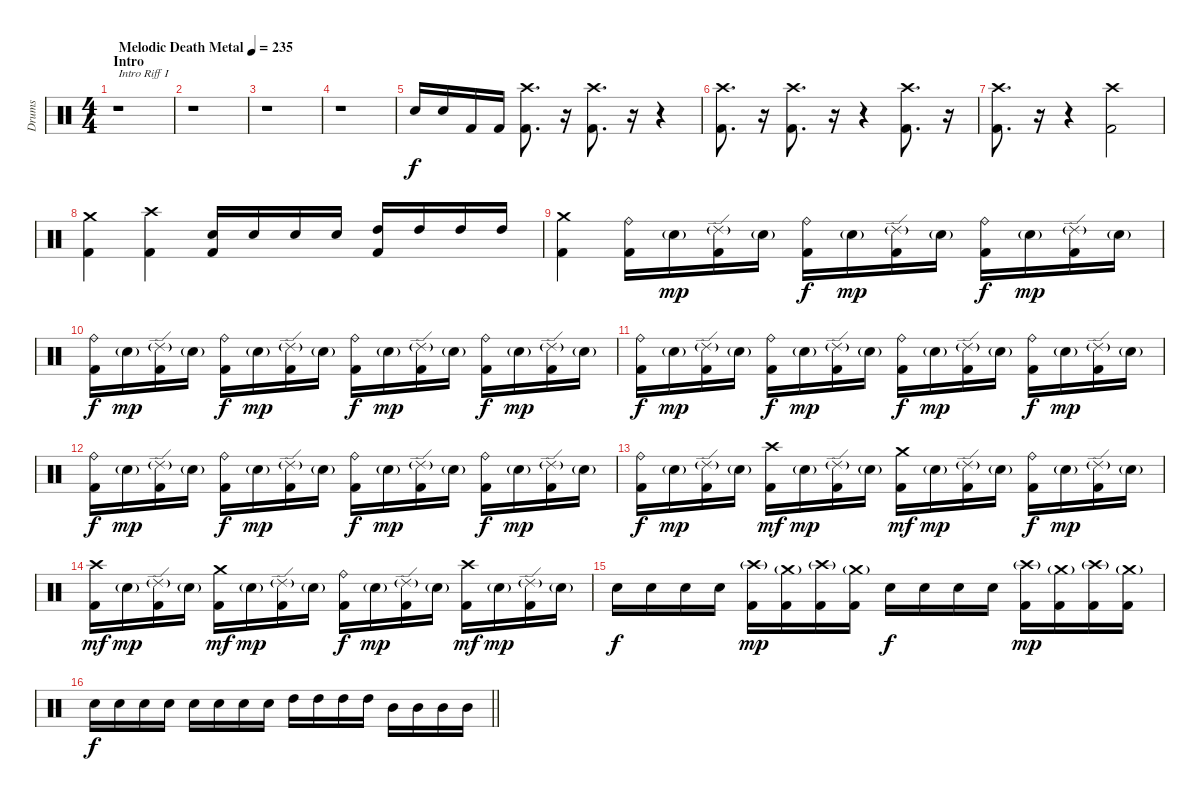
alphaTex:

\track ("Drums" "Drums") {instrument percussion}
\staff {score}
\articulation defaults
\ts (4 4)
\section ("" "Intro")
\tempo (235 "Melodic Death Metal")
\clef neutral
\ks c
r.1{txt "Intro Riff I" dy f} |
r.1 |
r.1 |
r.1 |
"Electric Snare (hit)".16{volume 16 balance 8} "Electric Snare (hit)".16 "Kick (hit) 2".16 "Kick (hit) 2".16 ("Crash high (hit)" "Kick (hit) 2").8{d} r.16{volume 0} ("Crash high (hit)" "Kick (hit) 2").8{d volume 16} r.16{volume 0} r.4 |
("Crash high (hit)" "Kick (hit) 2").8{d volume 16} r.16{volume 0} ("Crash high (hit)" "Kick (hit) 2").8{d volume 16} r.16{volume 0} r.4 ("Crash high (hit)" "Kick (hit) 2").8{d volume 16} r.16{volume 0} |
("Crash high (hit)" "Kick (hit) 2").8{d volume 16} r.16{volume 0} r.4 ("Crash high (hit)" "Kick (hit) 2").2{volume 16} |
("Crash medium (hit)" "Kick (hit) 2").4 ("Crash high (hit)" "Kick (hit) 2").4 ("Electric Snare (hit)" "Kick (hit) 2").16 "Electric Snare (hit)".16 "Electric Snare (hit)".16 "Electric Snare (hit)".16 ("High Tom (hit)" "Kick (hit) 2").16 "High Tom (hit)".16 "High Tom (hit)".16 "High Tom (hit)".16 |
("Crash medium (hit)" "Kick (hit) 2").4 ("Ride (bell)" "Kick (hit) 2").16 "Electric Snare (hit)"{g}.16{dy mp} ("Ride (edge) 2"{g} "Kick (hit) 2").16 "Electric Snare (hit)"{g}.16 ("Ride (bell)" "Kick (hit) 2").16{dy f} "Electric Snare (hit)"{g}.16{dy mp} ("Ride (edge) 2"{g} "Kick (hit) 2").16 "Electric Snare (hit)"{g}.16 ("Ride (bell)" "Kick (hit) 2").16{dy f} "Electric Snare (hit)"{g}.16{dy mp} ("Ride (edge) 2"{g} "Kick (hit) 2").16 "Electric Snare (hit)"{g}.16 |
("Ride (bell)" "Kick (hit) 2").16{dy f} "Electric Snare (hit)"{g}.16{dy mp} ("Ride (edge) 2"{g} "Kick (hit) 2").16 "Electric Snare (hit)"{g}.16 ("Ride (bell)" "Kick (hit) 2").16{dy f} "Electric Snare (hit)"{g}.16{dy mp} ("Ride (edge) 2"{g} "Kick (hit) 2").16 "Electric Snare (hit)"{g}.16 ("Ride (bell)" "Kick (hit) 2").16{dy f} "Electric Snare (hit)"{g}.16{dy mp} ("Ride (edge) 2"{g} "Kick (hit) 2").16 "Electric Snare (hit)"{g}.16 ("Ride (bell)" "Kick (hit) 2").16{dy f} "Electric Snare (hit)"{g}.16{dy mp} ("Ride (edge) 2"{g} "Kick (hit) 2").16 "Electric Snare (hit)"{g}.16 |
("Ride (bell)" "Kick (hit) 2").16{dy f} "Electric Snare (hit)"{g}.16{dy mp} ("Ride (edge) 2"{g} "Kick (hit) 2").16 "Electric Snare (hit)"{g}.16 ("Ride (bell)" "Kick (hit) 2").16{dy f} "Electric Snare (hit)"{g}.16{dy mp} ("Ride (edge) 2"{g} "Kick (hit) 2").16 "Electric Snare (hit)"{g}.16 ("Ride (bell)" "Kick (hit) 2").16{dy f} "Electric Snare (hit)"{g}.16{dy mp} ("Ride (edge) 2"{g} "Kick (hit) 2").16 "Electric Snare (hit)"{g}.16 ("Ride (bell)" "Kick (hit) 2").16{dy f} "Electric Snare (hit)"{g}.16{dy mp} ("Ride (edge) 2"{g} "Kick (hit) 2").16 "Electric Snare (hit)"{g}.16 |
("Ride (bell)" "Kick (hit) 2").16{dy f} "Electric Snare (hit)"{g}.16{dy mp} ("Ride (edge) 2"{g} "Kick (hit) 2").16 "Electric Snare (hit)"{g}.16 ("Ride (bell)" "Kick (hit) 2").16{dy f} "Electric Snare (hit)"{g}.16{dy mp} ("Ride (edge) 2"{g} "Kick (hit) 2").16 "Electric Snare (hit)"{g}.16 ("Ride (bell)" "Kick (hit) 2").16{dy f} "Electric Snare (hit)"{g}.16{dy mp} ("Ride (edge) 2"{g} "Kick (hit) 2").16 "Electric Snare (hit)"{g}.16 ("Ride (bell)" "Kick (hit) 2").16{dy f} "Electric Snare (hit)"{g}.16{dy mp} ("Ride (edge) 2"{g} "Kick (hit) 2").16 "Electric Snare (hit)"{g}.16 |
("Ride (bell)" "Kick (hit) 2").16{dy f} "Electric Snare (hit)"{g}.16{dy mp} ("Ride (edge) 2"{g} "Kick (hit) 2").16 "Electric Snare (hit)"{g}.16 ("Crash high (hit)" "Kick (hit) 2").16{dy mf} "Electric Snare (hit)"{g}.16{dy mp} ("Ride (edge) 2"{g} "Kick (hit) 2").16 "Electric Snare (hit)"{g}.16 ("Crash medium (hit)" "Kick (hit) 2").16{dy mf} "Electric Snare (hit)"{g}.16{dy mp} ("Ride (edge) 2"{g} "Kick (hit) 2").16 "Electric Snare (hit)"{g}.16 ("Ride (bell)" "Kick (hit) 2").16{dy f} "Electric Snare (hit)"{g}.16{dy mp} ("Ride (edge) 2"{g} "Kick (hit) 2").16 "Electric Snare (hit)"{g}.16 |
("Crash high (hit)" "Kick (hit) 2").16{dy mf} "Electric Snare (hit)"{g}.16{dy mp} ("Ride (edge) 2"{g} "Kick (hit) 2").16 "Electric Snare (hit)"{g}.16 ("Crash medium (hit)" "Kick (hit) 2").16{dy mf} "Electric Snare (hit)"{g}.16{dy mp} ("Ride (edge) 2"{g} "Kick (hit) 2").16 "Electric Snare (hit)"{g}.16 ("Ride (bell)" "Kick (hit) 2").16{dy f} "Electric Snare (hit)"{g}.16{dy mp} ("Ride (edge) 2"{g} "Kick (hit) 2").16 "Electric Snare (hit)"{g}.16 ("Crash high (hit)" "Kick (hit) 2").16{dy mf} "Electric Snare (hit)"{g}.16{dy mp} ("Ride (edge) 2"{g} "Kick (hit) 2").16 "Electric Snare (hit)"{g}.16 |
"Electric Snare (hit)".16{dy f} "Electric Snare (hit)".16 "Electric Snare (hit)".16 "Electric Snare (hit)".16 ("Crash high (hit)"{g} "Kick (hit) 2").16{dy mp} ("Crash medium (hit)"{g} "Kick (hit) 2").16 ("Crash high (hit)"{g} "Kick (hit) 2").16 ("Crash medium (hit)"{g} "Kick (hit) 2").16 "Electric Snare (hit)".16{dy f} "Electric Snare (hit)".16 "Electric Snare (hit)".16 "Electric Snare (hit)".16 ("Crash high (hit)"{g} "Kick (hit) 2").16{dy mp} ("Crash medium (hit)"{g} "Kick (hit) 2").16 ("Crash high (hit)"{g} "Kick (hit) 2").16 ("Crash medium (hit)"{g} "Kick (hit) 2").16 |
\barLineRight lightlight "Electric Snare (hit)".16{dy f} "Electric Snare (hit)".16 "Electric Snare (hit)".16 "Electric Snare (hit)".16 "Electric Snare (hit)".16 "Electric Snare (hit)".16 "Electric Snare (hit)".16 "Electric Snare (hit)".16 "High Tom (hit)".16 "High Tom (hit)".16 "High Tom (hit)".16 "High Tom (hit)".16 "Mid Tom (hit)".16 "Mid Tom (hit)".16 "Mid Tom (hit)".16 "Mid Tom (hit)".16
